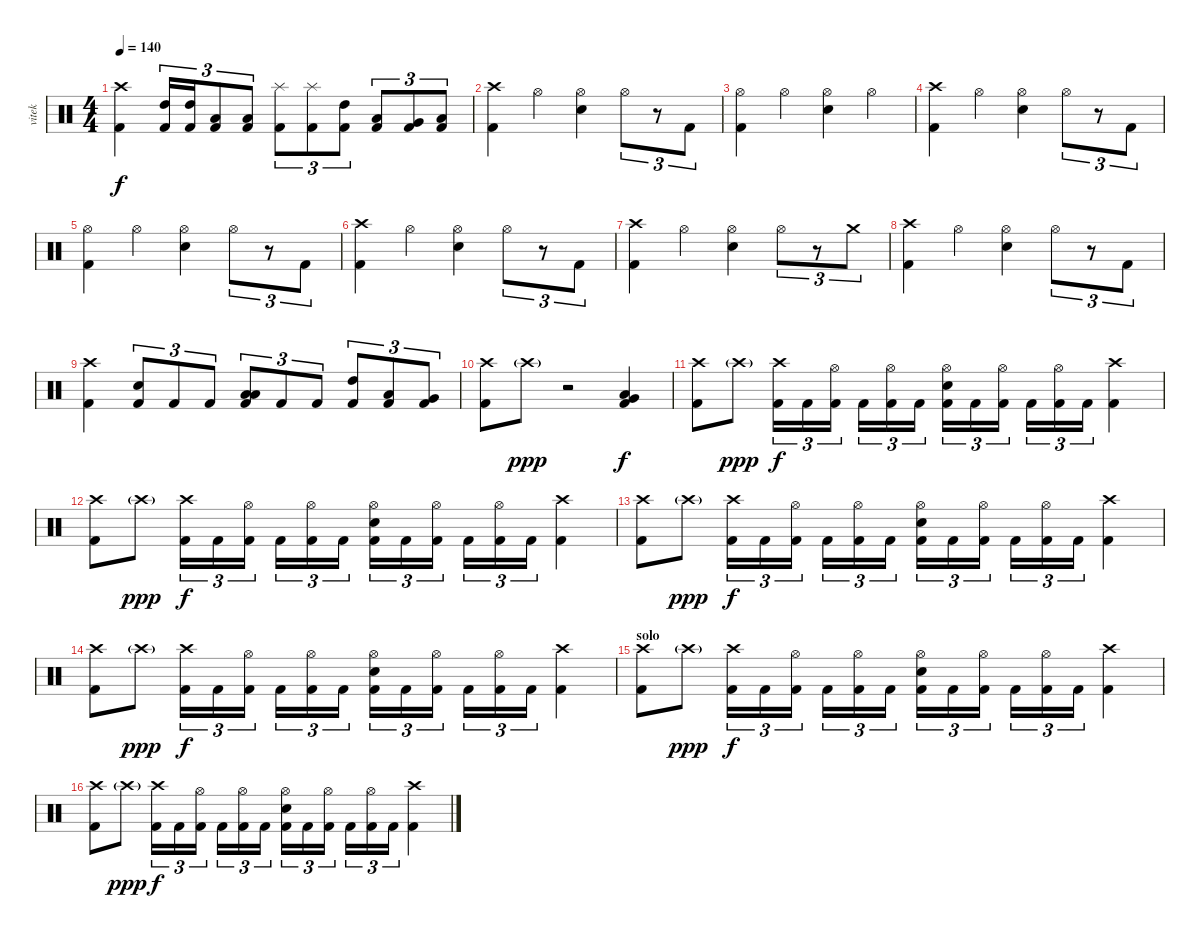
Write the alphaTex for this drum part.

\track ("vitek" "vitek") {instrument percussion}
\staff {score}
\articulation defaults
\ts (4 4)
\tempo 140
\clef neutral
\ks c
("Crash high (hit)" "Kick (hit) 2").4{dy f} ("High Tom (hit)" "Kick (hit) 2").16{tu (3 2)} ("High Tom (hit)" "Kick (hit) 2").16{tu (3 2)} ("Low Tom (hit)" "Kick (hit) 2").8{tu (3 2)} ("Low Tom (hit)" "Kick (hit) 2").8{tu (3 2)} ("Splash (hit)" "Kick (hit) 2").8{tu (3 2)} ("Splash (hit)" "Kick (hit) 2").8{tu (3 2)} ("High Tom (hit)" "Kick (hit) 2").8{tu (3 2)} ("Low Tom (hit)" "Kick (hit) 2").8{tu (3 2)} ("Very Low Tom (hit)" "Kick (hit) 2").8{tu (3 2)} ("Low Floor Tom (hit)" "Kick (hit) 2").8{tu (3 2)} |
("Crash high (hit)" "Kick (hit) 2").4 "Hi-Hat (open)".4 ("Hi-Hat (open)" "Electric Snare (hit)").4 "Hi-Hat (open)".8{tu (3 2)} r.8{tu (3 2)} "Kick (hit) 2".8{tu (3 2)} |
("Hi-Hat (open)" "Kick (hit) 2").4 "Hi-Hat (open)".4 ("Hi-Hat (open)" "Electric Snare (hit)").4 "Hi-Hat (open)".4 |
("Crash high (hit)" "Kick (hit) 2").4 "Hi-Hat (open)".4 ("Hi-Hat (open)" "Electric Snare (hit)").4 "Hi-Hat (open)".8{tu (3 2)} r.8{tu (3 2)} "Kick (hit) 2".8{tu (3 2)} |
("Hi-Hat (open)" "Kick (hit) 2").4 "Hi-Hat (open)".4 ("Hi-Hat (open)" "Electric Snare (hit)").4 "Hi-Hat (open)".8{tu (3 2)} r.8{tu (3 2)} "Kick (hit) 2".8{tu (3 2)} |
("Crash high (hit)" "Kick (hit) 2").4 "Hi-Hat (open)".4 ("Hi-Hat (open)" "Electric Snare (hit)").4 "Hi-Hat (open)".8{tu (3 2)} r.8{tu (3 2)} "Kick (hit) 2".8{tu (3 2)} |
("Crash high (hit)" "Kick (hit) 2").4 "Hi-Hat (open)".4 ("Hi-Hat (open)" "Electric Snare (hit)").4 "Hi-Hat (open)".8{tu (3 2)} r.8{tu (3 2)} "Crash medium (hit)".8{tu (3 2)} |
("Crash high (hit)" "Kick (hit) 2").4 "Hi-Hat (open)".4 ("Hi-Hat (open)" "Electric Snare (hit)").4 "Hi-Hat (open)".8{tu (3 2)} r.8{tu (3 2)} "Kick (hit) 2".8{tu (3 2)} |
("Crash high (hit)" "Kick (hit) 2").4 ("Electric Snare (hit)" "Kick (hit) 2").8{tu (3 2)} "Kick (hit) 2".8{tu (3 2)} "Kick (hit) 2".8{tu (3 2)} ("Low Tom (hit)" "Low Floor Tom (hit)" "Kick (hit) 2").8{tu (3 2)} "Kick (hit) 2".8{tu (3 2)} "Kick (hit) 2".8{tu (3 2)} ("High Tom (hit)" "Kick (hit) 2").8{tu (3 2)} ("Low Tom (hit)" "Kick (hit) 2").8{tu (3 2)} ("Very Low Tom (hit)" "Kick (hit) 2").8{tu (3 2)} |
\section ("" "")
("Crash high (hit)"{pm} "Kick (hit) 2").8 "Crash high (hit)"{g}.8{dy ppp} r.2 ("Very Low Tom (hit)" "Low Floor Tom (hit)" "Kick (hit) 2").4{dy f} |
("Crash high (hit)"{pm} "Kick (hit) 2").8 "Crash high (hit)"{g}.8{dy ppp} ("Crash high (hit)" "Kick (hit) 2").16{tu (3 2) dy f} "Kick (hit) 2".16{tu (3 2)} ("Hi-Hat (open)" "Kick (hit) 2").16{tu (3 2)} "Kick (hit) 2".16{tu (3 2)} ("Hi-Hat (open)" "Kick (hit) 2").16{tu (3 2)} "Kick (hit) 2".16{tu (3 2)} ("Hi-Hat (open)" "Electric Snare (hit)" "Kick (hit) 2").16{tu (3 2)} "Kick (hit) 2".16{tu (3 2)} ("Hi-Hat (open)" "Kick (hit) 2").16{tu (3 2)} "Kick (hit) 2".16{tu (3 2)} ("Hi-Hat (open)" "Kick (hit) 2").16{tu (3 2)} "Kick (hit) 2".16{tu (3 2)} ("Crash high (hit)" "Kick (hit) 2").4 |
("Crash high (hit)"{pm} "Kick (hit) 2").8 "Crash high (hit)"{g}.8{dy ppp} ("Crash high (hit)" "Kick (hit) 2").16{tu (3 2) dy f} "Kick (hit) 2".16{tu (3 2)} ("Hi-Hat (open)" "Kick (hit) 2").16{tu (3 2)} "Kick (hit) 2".16{tu (3 2)} ("Hi-Hat (open)" "Kick (hit) 2").16{tu (3 2)} "Kick (hit) 2".16{tu (3 2)} ("Hi-Hat (open)" "Electric Snare (hit)" "Kick (hit) 2").16{tu (3 2)} "Kick (hit) 2".16{tu (3 2)} ("Hi-Hat (open)" "Kick (hit) 2").16{tu (3 2)} "Kick (hit) 2".16{tu (3 2)} ("Hi-Hat (open)" "Kick (hit) 2").16{tu (3 2)} "Kick (hit) 2".16{tu (3 2)} ("Crash high (hit)" "Kick (hit) 2").4 |
("Crash high (hit)"{pm} "Kick (hit) 2").8 "Crash high (hit)"{g}.8{dy ppp} ("Crash high (hit)" "Kick (hit) 2").16{tu (3 2) dy f} "Kick (hit) 2".16{tu (3 2)} ("Hi-Hat (open)" "Kick (hit) 2").16{tu (3 2)} "Kick (hit) 2".16{tu (3 2)} ("Hi-Hat (open)" "Kick (hit) 2").16{tu (3 2)} "Kick (hit) 2".16{tu (3 2)} ("Hi-Hat (open)" "Electric Snare (hit)" "Kick (hit) 2").16{tu (3 2)} "Kick (hit) 2".16{tu (3 2)} ("Hi-Hat (open)" "Kick (hit) 2").16{tu (3 2)} "Kick (hit) 2".16{tu (3 2)} ("Hi-Hat (open)" "Kick (hit) 2").16{tu (3 2)} "Kick (hit) 2".16{tu (3 2)} ("Crash high (hit)" "Kick (hit) 2").4 |
("Crash high (hit)"{pm} "Kick (hit) 2").8 "Crash high (hit)"{g}.8{dy ppp} ("Crash high (hit)" "Kick (hit) 2").16{tu (3 2) dy f} "Kick (hit) 2".16{tu (3 2)} ("Hi-Hat (open)" "Kick (hit) 2").16{tu (3 2)} "Kick (hit) 2".16{tu (3 2)} ("Hi-Hat (open)" "Kick (hit) 2").16{tu (3 2)} "Kick (hit) 2".16{tu (3 2)} ("Hi-Hat (open)" "Electric Snare (hit)" "Kick (hit) 2").16{tu (3 2)} "Kick (hit) 2".16{tu (3 2)} ("Hi-Hat (open)" "Kick (hit) 2").16{tu (3 2)} "Kick (hit) 2".16{tu (3 2)} ("Hi-Hat (open)" "Kick (hit) 2").16{tu (3 2)} "Kick (hit) 2".16{tu (3 2)} ("Crash high (hit)" "Kick (hit) 2").4 |
\section ("" "solo")
("Crash high (hit)"{pm} "Kick (hit) 2").8 "Crash high (hit)"{g}.8{dy ppp} ("Crash high (hit)" "Kick (hit) 2").16{tu (3 2) dy f} "Kick (hit) 2".16{tu (3 2)} ("Hi-Hat (open)" "Kick (hit) 2").16{tu (3 2)} "Kick (hit) 2".16{tu (3 2)} ("Hi-Hat (open)" "Kick (hit) 2").16{tu (3 2)} "Kick (hit) 2".16{tu (3 2)} ("Hi-Hat (open)" "Electric Snare (hit)" "Kick (hit) 2").16{tu (3 2)} "Kick (hit) 2".16{tu (3 2)} ("Hi-Hat (open)" "Kick (hit) 2").16{tu (3 2)} "Kick (hit) 2".16{tu (3 2)} ("Hi-Hat (open)" "Kick (hit) 2").16{tu (3 2)} "Kick (hit) 2".16{tu (3 2)} ("Crash high (hit)" "Kick (hit) 2").4 |
("Crash high (hit)"{pm} "Kick (hit) 2").8 "Crash high (hit)"{g}.8{dy ppp} ("Crash high (hit)" "Kick (hit) 2").16{tu (3 2) dy f} "Kick (hit) 2".16{tu (3 2)} ("Hi-Hat (open)" "Kick (hit) 2").16{tu (3 2)} "Kick (hit) 2".16{tu (3 2)} ("Hi-Hat (open)" "Kick (hit) 2").16{tu (3 2)} "Kick (hit) 2".16{tu (3 2)} ("Hi-Hat (open)" "Electric Snare (hit)" "Kick (hit) 2").16{tu (3 2)} "Kick (hit) 2".16{tu (3 2)} ("Hi-Hat (open)" "Kick (hit) 2").16{tu (3 2)} "Kick (hit) 2".16{tu (3 2)} ("Hi-Hat (open)" "Kick (hit) 2").16{tu (3 2)} "Kick (hit) 2".16{tu (3 2)} ("Crash high (hit)" "Kick (hit) 2").4
